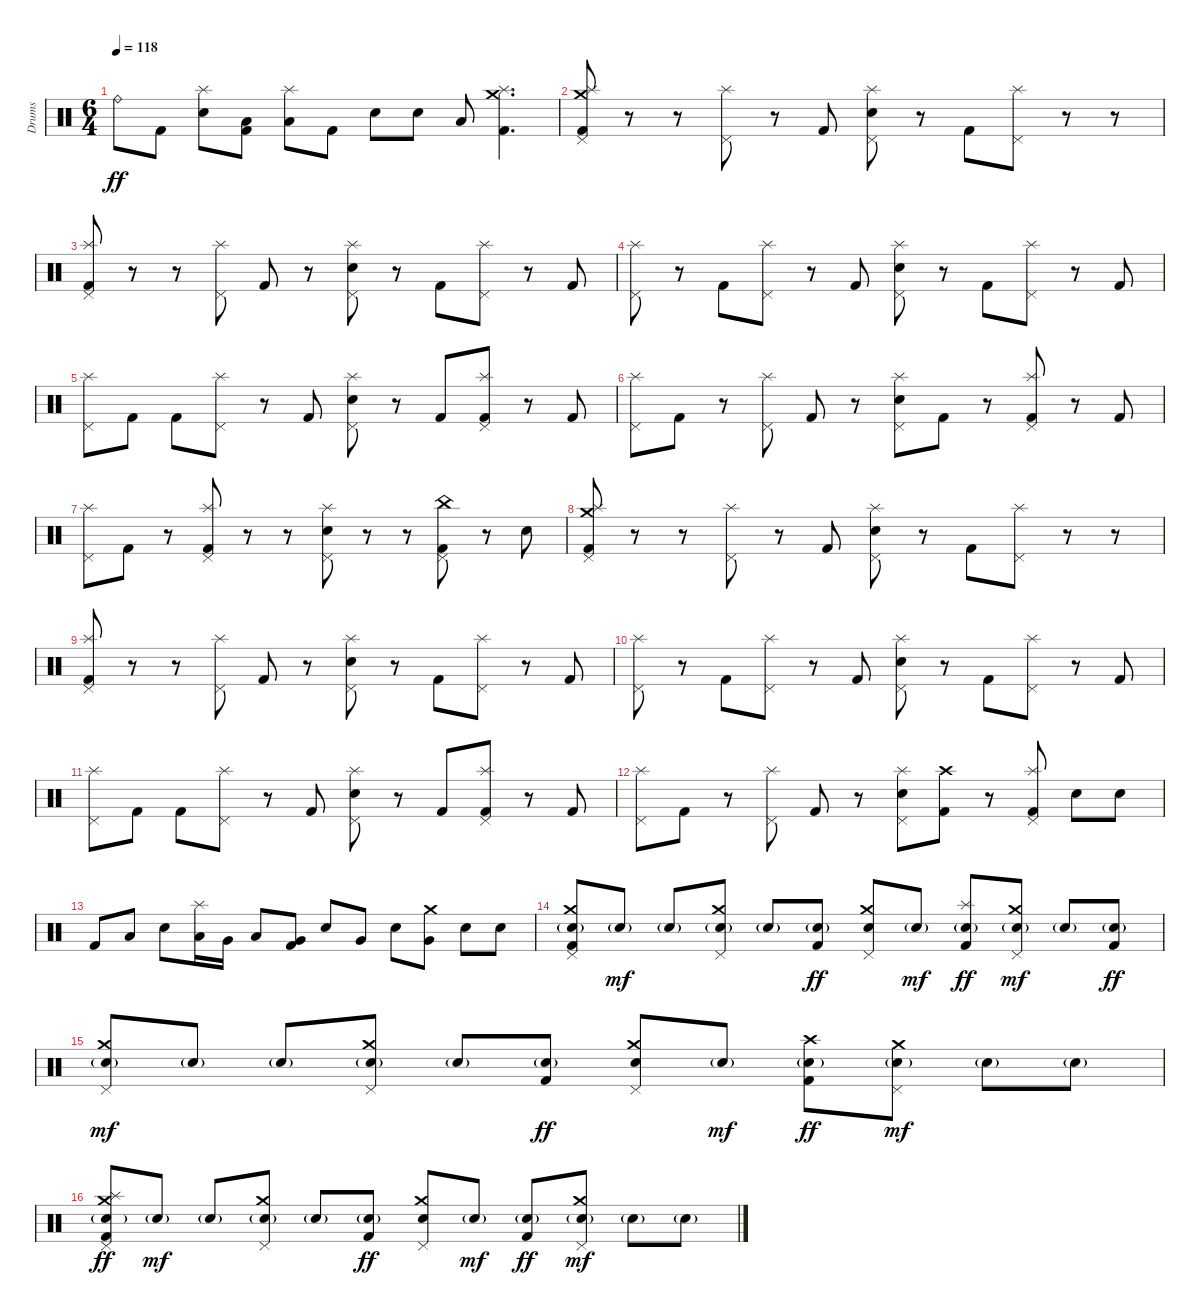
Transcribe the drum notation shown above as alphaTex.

\track ("Drums" "Drums") {instrument percussion}
\staff {score}
\articulation defaults
\ts (6 4)
\tempo 118
\clef neutral
\ks c "Ride (bell)".8{dy ff} "Kick (hit) 2".8
("Splash (hit)" "Electric Snare (hit)").8 ("Low Tom (hit)" "Kick (hit) 2").8 ("Splash (hit)" "Low Tom (hit)").8 "Kick (hit) 2".8 "Electric Snare (hit)".8 "Electric Snare (hit)".8 "Low Tom (hit)".8 ("Crash medium (hit)" "Splash (hit)" "Kick (hit) 2").4{d} |
\section ("" "")
("Crash medium (hit)" "Splash (hit)" "Pedal Hi-Hat (hit)" "Kick (hit) 2").8 r.8 r.8 ("Splash (hit)" "Pedal Hi-Hat (hit)").8 r.8 "Kick (hit) 2".8 ("Splash (hit)" "Pedal Hi-Hat (hit)" "Electric Snare (hit)").8 r.8 "Kick (hit) 2".8 ("Splash (hit)" "Pedal Hi-Hat (hit)").8 r.8 r.8 |
("Splash (hit)" "Pedal Hi-Hat (hit)" "Kick (hit) 2").8 r.8 r.8 ("Splash (hit)" "Pedal Hi-Hat (hit)").8 "Kick (hit) 2".8 r.8 ("Splash (hit)" "Pedal Hi-Hat (hit)" "Electric Snare (hit)").8 r.8 "Kick (hit) 2".8 ("Splash (hit)" "Pedal Hi-Hat (hit)").8 r.8 "Kick (hit) 2".8 |
("Splash (hit)" "Pedal Hi-Hat (hit)").8 r.8 "Kick (hit) 2".8 ("Splash (hit)" "Pedal Hi-Hat (hit)").8 r.8 "Kick (hit) 2".8 ("Splash (hit)" "Pedal Hi-Hat (hit)" "Electric Snare (hit)").8 r.8 "Kick (hit) 2".8 ("Splash (hit)" "Pedal Hi-Hat (hit)").8 r.8 "Kick (hit) 2".8 |
("Splash (hit)" "Pedal Hi-Hat (hit)").8 "Kick (hit) 2".8 "Kick (hit) 2".8 ("Splash (hit)" "Pedal Hi-Hat (hit)").8 r.8 "Kick (hit) 2".8 ("Splash (hit)" "Pedal Hi-Hat (hit)" "Electric Snare (hit)").8 r.8 "Kick (hit) 2".8 ("Splash (hit)" "Pedal Hi-Hat (hit)" "Kick (hit) 2").8 r.8 "Kick (hit) 2".8 |
("Splash (hit)" "Pedal Hi-Hat (hit)").8 "Kick (hit) 2".8 r.8 ("Splash (hit)" "Pedal Hi-Hat (hit)").8 "Kick (hit) 2".8 r.8 ("Splash (hit)" "Pedal Hi-Hat (hit)" "Electric Snare (hit)").8 "Kick (hit) 2".8 r.8 ("Splash (hit)" "Pedal Hi-Hat (hit)" "Kick (hit) 2").8 r.8 "Kick (hit) 2".8 |
("Splash (hit)" "Pedal Hi-Hat (hit)").8 "Kick (hit) 2".8 r.8 ("Splash (hit)" "Pedal Hi-Hat (hit)" "Kick (hit) 2").8 r.8 r.8 ("Splash (hit)" "Pedal Hi-Hat (hit)" "Electric Snare (hit)").8 r.8 r.8 ("China (hit)" "Pedal Hi-Hat (hit)" "Kick (hit) 2").8 r.8 "Electric Snare (hit)".8 |
("Crash medium (hit)" "Splash (hit)" "Pedal Hi-Hat (hit)" "Kick (hit) 2").8 r.8 r.8 ("Splash (hit)" "Pedal Hi-Hat (hit)").8 r.8 "Kick (hit) 2".8 ("Splash (hit)" "Pedal Hi-Hat (hit)" "Electric Snare (hit)").8 r.8 "Kick (hit) 2".8 ("Splash (hit)" "Pedal Hi-Hat (hit)").8 r.8 r.8 |
("Splash (hit)" "Pedal Hi-Hat (hit)" "Kick (hit) 2").8 r.8 r.8 ("Splash (hit)" "Pedal Hi-Hat (hit)").8 "Kick (hit) 2".8 r.8 ("Splash (hit)" "Pedal Hi-Hat (hit)" "Electric Snare (hit)").8 r.8 "Kick (hit) 2".8 ("Splash (hit)" "Pedal Hi-Hat (hit)").8 r.8 "Kick (hit) 2".8 |
("Splash (hit)" "Pedal Hi-Hat (hit)").8 r.8 "Kick (hit) 2".8 ("Splash (hit)" "Pedal Hi-Hat (hit)").8 r.8 "Kick (hit) 2".8 ("Splash (hit)" "Pedal Hi-Hat (hit)" "Electric Snare (hit)").8 r.8 "Kick (hit) 2".8 ("Splash (hit)" "Pedal Hi-Hat (hit)").8 r.8 "Kick (hit) 2".8 |
("Splash (hit)" "Pedal Hi-Hat (hit)").8 "Kick (hit) 2".8 "Kick (hit) 2".8 ("Splash (hit)" "Pedal Hi-Hat (hit)").8 r.8 "Kick (hit) 2".8 ("Splash (hit)" "Pedal Hi-Hat (hit)" "Electric Snare (hit)").8 r.8 "Kick (hit) 2".8 ("Splash (hit)" "Pedal Hi-Hat (hit)" "Kick (hit) 2").8 r.8 "Kick (hit) 2".8 |
("Splash (hit)" "Pedal Hi-Hat (hit)").8 "Kick (hit) 2".8 r.8 ("Splash (hit)" "Pedal Hi-Hat (hit)").8 "Kick (hit) 2".8 r.8 ("Splash (hit)" "Pedal Hi-Hat (hit)" "Electric Snare (hit)").8 ("Crash high (hit)" "Kick (hit) 2").8 r.8 ("Splash (hit)" "Pedal Hi-Hat (hit)" "Kick (hit) 2").8 "Electric Snare (hit)".8 "Electric Snare (hit)".8 |
"Kick (hit) 2".8 "Low Floor Tom (hit)".8 "Electric Snare (hit)".8 ("Splash (hit)" "Low Tom (hit)").16 "Very Low Tom (hit)".16 "Low Floor Tom (hit)".8 ("Very Low Tom (hit)" "Kick (hit) 2").8 "Electric Snare (hit)".8 "Very Low Tom (hit)".8 "Electric Snare (hit)".8 ("Crash medium (hit)" "Very Low Tom (hit)").8 "Electric Snare (hit)".8 "Electric Snare (hit)".8 |
\section ("" "")
("Crash medium (hit)" "Pedal Hi-Hat (hit)" "Electric Snare (hit)"{g} "Kick (hit) 2").8 "Electric Snare (hit)"{g}.8{dy mf} "Electric Snare (hit)"{g}.8 ("Crash medium (hit)" "Pedal Hi-Hat (hit)" "Electric Snare (hit)"{g}).8 "Electric Snare (hit)"{g}.8 ("Electric Snare (hit)"{g} "Kick (hit) 2").8{dy ff} ("Crash medium (hit)" "Pedal Hi-Hat (hit)" "Electric Snare (hit)").8 "Electric Snare (hit)"{g}.8{dy mf} ("Splash (hit)" "Electric Snare (hit)"{g} "Kick (hit) 2").8{dy ff} ("Crash medium (hit)" "Pedal Hi-Hat (hit)" "Electric Snare (hit)"{g}).8{dy mf} "Electric Snare (hit)"{g}.8 ("Electric Snare (hit)"{g} "Kick (hit) 2").8{dy ff} |
("Crash medium (hit)" "Pedal Hi-Hat (hit)" "Electric Snare (hit)"{g}).8{dy mf} "Electric Snare (hit)"{g}.8 "Electric Snare (hit)"{g}.8 ("Crash medium (hit)" "Pedal Hi-Hat (hit)" "Electric Snare (hit)"{g}).8 "Electric Snare (hit)"{g}.8 ("Electric Snare (hit)"{g} "Kick (hit) 2").8{dy ff} ("Crash medium (hit)" "Pedal Hi-Hat (hit)" "Electric Snare (hit)").8 "Electric Snare (hit)"{g}.8{dy mf} ("Crash high (hit)" "Electric Snare (hit)"{g} "Kick (hit) 2").8{dy ff} ("Crash medium (hit)" "Pedal Hi-Hat (hit)" "Electric Snare (hit)"{g}).8{dy mf} "Electric Snare (hit)"{g}.8 "Electric Snare (hit)"{g}.8 |
("Crash medium (hit)" "Splash (hit)" "Pedal Hi-Hat (hit)" "Electric Snare (hit)"{g} "Kick (hit) 2").8{dy ff} "Electric Snare (hit)"{g}.8{dy mf} "Electric Snare (hit)"{g}.8 ("Crash medium (hit)" "Pedal Hi-Hat (hit)" "Electric Snare (hit)"{g}).8 "Electric Snare (hit)"{g}.8 ("Electric Snare (hit)"{g} "Kick (hit) 2").8{dy ff} ("Crash medium (hit)" "Pedal Hi-Hat (hit)" "Electric Snare (hit)").8 "Electric Snare (hit)"{g}.8{dy mf} ("Electric Snare (hit)"{g} "Kick (hit) 2").8{dy ff} ("Crash medium (hit)" "Pedal Hi-Hat (hit)" "Electric Snare (hit)"{g}).8{dy mf} "Electric Snare (hit)"{g}.8 "Electric Snare (hit)"{g}.8
